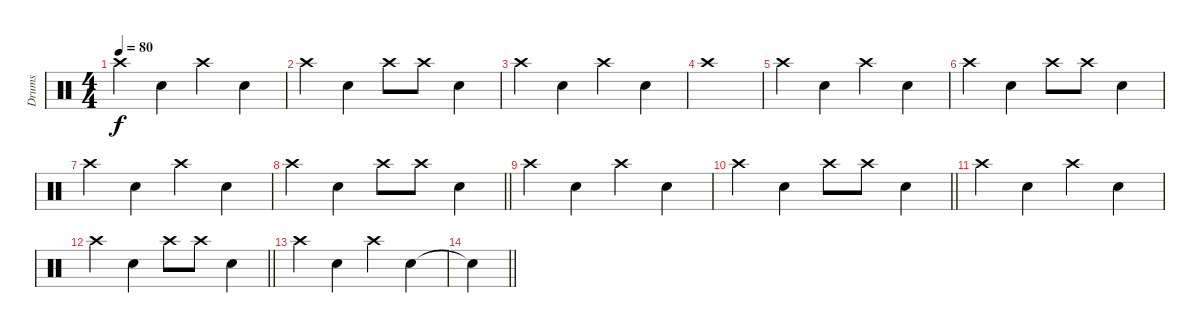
\track ("Drums" "Drums") {instrument percussion}
\staff {score}
\articulation defaults
\ts (4 4)
\tempo 80
\clef neutral
\ks c "Crash high (hit)".4{dy f} "Snare (hit) 2".4 "Crash high (hit)".4 "Snare (hit) 2".4
|
"Crash high (hit)".4 "Snare (hit) 2".4 "Crash high (hit)".8 "Crash high (hit)".8 "Snare (hit) 2".4 |
"Crash high (hit)".4 "Snare (hit) 2".4 "Crash high (hit)".4 "Snare (hit) 2".4 |
"Crash high (hit)".1 |
"Crash high (hit)".4 "Snare (hit) 2".4 "Crash high (hit)".4 "Snare (hit) 2".4 |
"Crash high (hit)".4 "Snare (hit) 2".4 "Crash high (hit)".8 "Crash high (hit)".8 "Snare (hit) 2".4 |
"Crash high (hit)".4 "Snare (hit) 2".4 "Crash high (hit)".4 "Snare (hit) 2".4 |
\barLineRight lightlight "Crash high (hit)".4 "Snare (hit) 2".4 "Crash high (hit)".8 "Crash high (hit)".8 "Snare (hit) 2".4
|
"Crash high (hit)".4 "Snare (hit) 2".4 "Crash high (hit)".4 "Snare (hit) 2".4 |
\barLineRight lightlight "Crash high (hit)".4 "Snare (hit) 2".4 "Crash high (hit)".8 "Crash high (hit)".8 "Snare (hit) 2".4
|
"Crash high (hit)".4 "Snare (hit) 2".4 "Crash high (hit)".4 "Snare (hit) 2".4 |
\barLineRight lightlight "Crash high (hit)".4 "Snare (hit) 2".4 "Crash high (hit)".8 "Crash high (hit)".8 "Snare (hit) 2".4
|
"Crash high (hit)".4 "Snare (hit) 2".4 "Crash high (hit)".4 "Snare (hit) 2".4 |
\barLineRight lightlight "Snare (hit)"{t}.4
